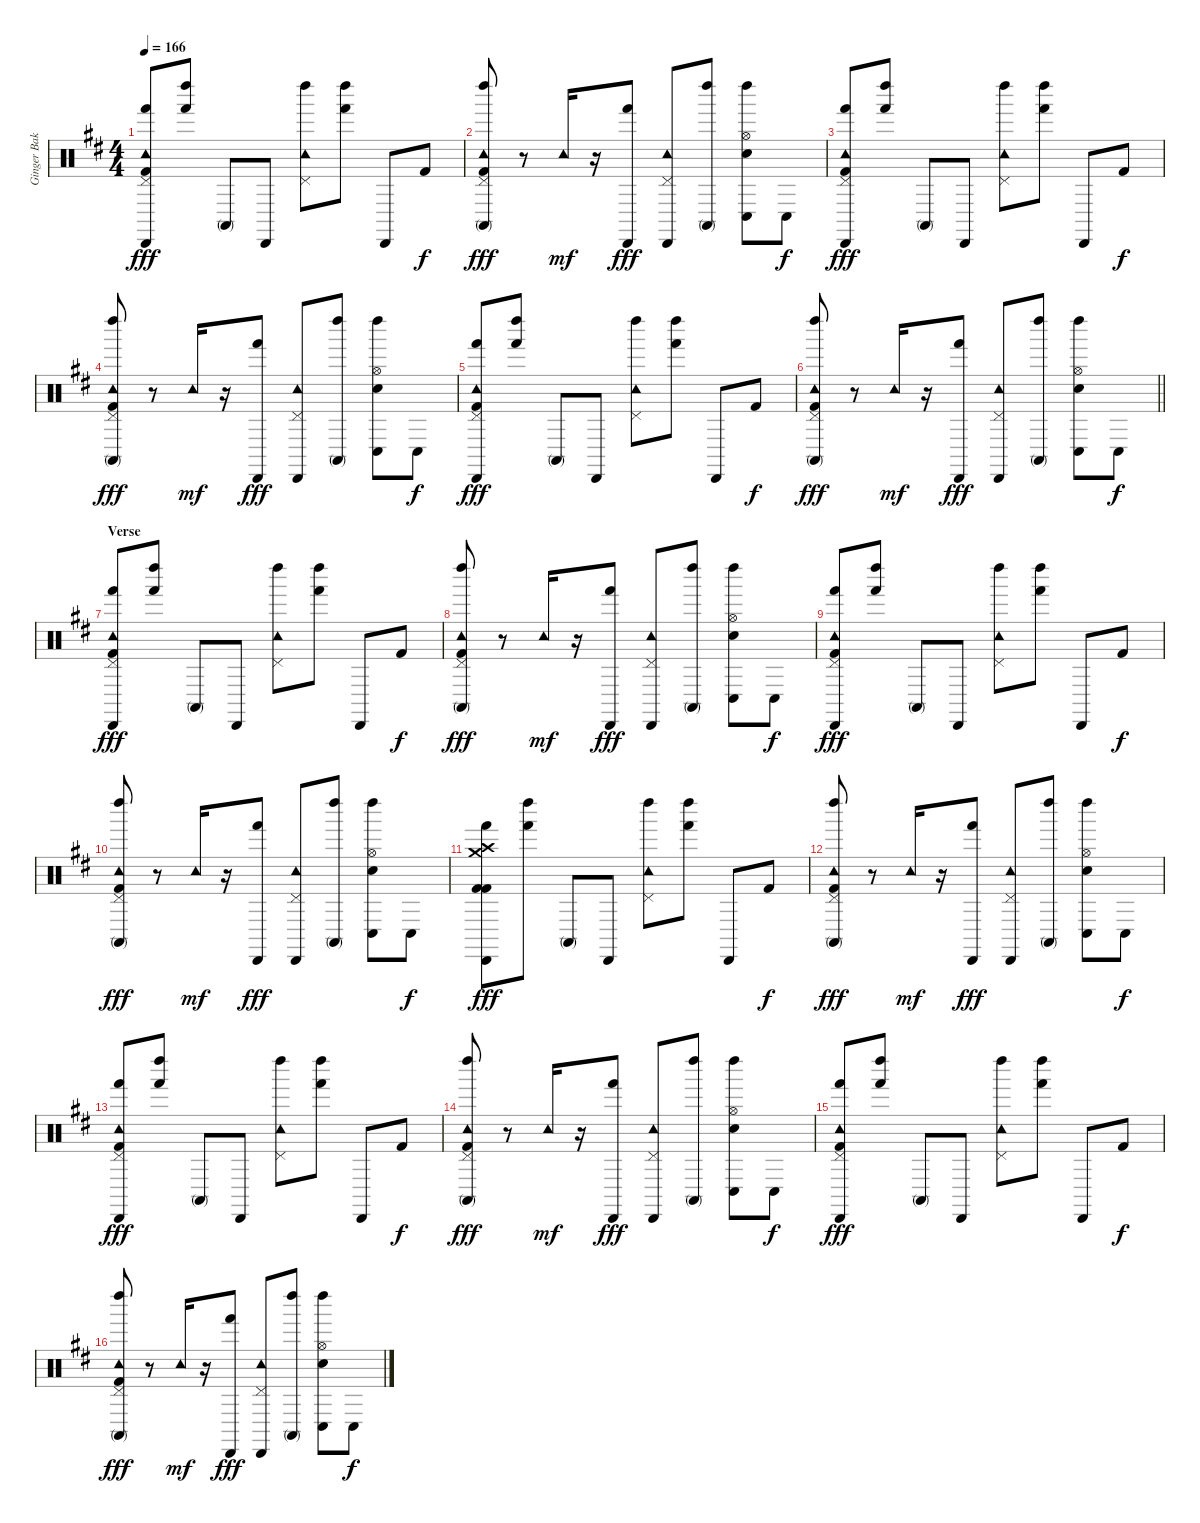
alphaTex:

\track ("Ginger Baker (Drums)" "Ginger Bak") {instrument percussion}
\staff {score}
\articulation defaults
\ts (4 4)
\tempo 166
\clef neutral
\ks d
("Tambourine (hit)" "Pedal Hi-Hat (hit)" "Kick (hit) 2" "Hand (hit)" "Cabasa (hit)").8{dy fff} ("Hand (hit)" "Left Maraca (hit)").8 "Conga high (mute)".8 "Cabasa (hit)".8 ("Tambourine (hit)" "Pedal Hi-Hat (hit)" "Left Maraca (hit)").8 ("Left Maraca (hit)" "Hand (hit)").8 "Cabasa (hit)".8 "Kick (hit) 2".8{dy f} |
("Tambourine (hit)" "Pedal Hi-Hat (hit)" "Left Maraca (hit)" "Conga high (mute)" "Kick (hit) 2").8{dy fff} r.8 "Tambourine (hit)".16{dy mf} r.16 ("Cabasa (hit)" "Hand (hit)").8{dy fff} ("Tambourine (hit)" "Pedal Hi-Hat (hit)" "Cabasa (hit)").8 ("Left Maraca (hit)" "Conga high (mute)").8 ("Hi-Hat (open)" "Snare (hit) 2" "Left Maraca (hit)" "Conga low (hit)").8 "Conga low (hit)".8{dy f} |
("Tambourine (hit)" "Pedal Hi-Hat (hit)" "Kick (hit) 2" "Hand (hit)" "Cabasa (hit)").8{dy fff} ("Hand (hit)" "Left Maraca (hit)").8 "Conga high (mute)".8 "Cabasa (hit)".8 ("Tambourine (hit)" "Pedal Hi-Hat (hit)" "Left Maraca (hit)").8 ("Left Maraca (hit)" "Hand (hit)").8 "Cabasa (hit)".8 "Kick (hit) 2".8{dy f} |
("Tambourine (hit)" "Pedal Hi-Hat (hit)" "Left Maraca (hit)" "Conga high (mute)" "Kick (hit) 2").8{dy fff} r.8 "Tambourine (hit)".16{dy mf} r.16 ("Cabasa (hit)" "Hand (hit)").8{dy fff} ("Tambourine (hit)" "Pedal Hi-Hat (hit)" "Cabasa (hit)").8 ("Left Maraca (hit)" "Conga high (mute)").8 ("Hi-Hat (open)" "Snare (hit) 2" "Left Maraca (hit)" "Conga low (hit)").8 "Conga low (hit)".8{dy f} |
("Tambourine (hit)" "Pedal Hi-Hat (hit)" "Kick (hit) 2" "Hand (hit)" "Cabasa (hit)").8{dy fff} ("Hand (hit)" "Left Maraca (hit)").8 "Conga high (mute)".8 "Cabasa (hit)".8 ("Tambourine (hit)" "Pedal Hi-Hat (hit)" "Left Maraca (hit)").8 ("Left Maraca (hit)" "Hand (hit)").8 "Cabasa (hit)".8 "Kick (hit) 2".8{dy f} |
\barLineRight lightlight
("Tambourine (hit)" "Pedal Hi-Hat (hit)" "Left Maraca (hit)" "Conga high (mute)" "Kick (hit) 2").8{dy fff} r.8 "Tambourine (hit)".16{dy mf} r.16 ("Cabasa (hit)" "Hand (hit)").8{dy fff} ("Tambourine (hit)" "Pedal Hi-Hat (hit)" "Cabasa (hit)").8 ("Left Maraca (hit)" "Conga high (mute)").8 ("Hi-Hat (open)" "Snare (hit) 2" "Left Maraca (hit)" "Conga low (hit)").8 "Conga low (hit)".8{dy f} |
\section ("" "Verse")
("Tambourine (hit)" "Pedal Hi-Hat (hit)" "Kick (hit) 2" "Hand (hit)" "Cabasa (hit)").8{dy fff} ("Hand (hit)" "Left Maraca (hit)").8 "Conga high (mute)".8 "Cabasa (hit)".8 ("Tambourine (hit)" "Pedal Hi-Hat (hit)" "Left Maraca (hit)").8 ("Left Maraca (hit)" "Hand (hit)").8 "Cabasa (hit)".8 "Kick (hit) 2".8{dy f} |
("Tambourine (hit)" "Pedal Hi-Hat (hit)" "Left Maraca (hit)" "Conga high (mute)" "Kick (hit) 2").8{dy fff} r.8 "Tambourine (hit)".16{dy mf} r.16 ("Cabasa (hit)" "Hand (hit)").8{dy fff} ("Tambourine (hit)" "Pedal Hi-Hat (hit)" "Cabasa (hit)").8 ("Left Maraca (hit)" "Conga high (mute)").8 ("Hi-Hat (open)" "Snare (hit) 2" "Left Maraca (hit)" "Conga low (hit)").8 "Conga low (hit)".8{dy f} |
("Tambourine (hit)" "Pedal Hi-Hat (hit)" "Kick (hit) 2" "Hand (hit)" "Cabasa (hit)").8{dy fff} ("Hand (hit)" "Left Maraca (hit)").8 "Conga high (mute)".8 "Cabasa (hit)".8 ("Tambourine (hit)" "Pedal Hi-Hat (hit)" "Left Maraca (hit)").8 ("Left Maraca (hit)" "Hand (hit)").8 "Cabasa (hit)".8 "Kick (hit) 2".8{dy f} |
("Tambourine (hit)" "Pedal Hi-Hat (hit)" "Left Maraca (hit)" "Conga high (mute)" "Kick (hit) 2").8{dy fff} r.8 "Tambourine (hit)".16{dy mf} r.16 ("Cabasa (hit)" "Hand (hit)").8{dy fff} ("Tambourine (hit)" "Pedal Hi-Hat (hit)" "Cabasa (hit)").8 ("Left Maraca (hit)" "Conga high (mute)").8 ("Hi-Hat (open)" "Snare (hit) 2" "Left Maraca (hit)" "Conga low (hit)").8 "Conga low (hit)".8{dy f} |
("Crash high (hit)" "Crash medium (hit)" "Kick (hit) 2" "Hand (hit)" "Cabasa (hit)" "Kick (hit) 2").8{dy fff} ("Hand (hit)" "Left Maraca (hit)").8 "Conga high (mute)".8 "Cabasa (hit)".8 ("Tambourine (hit)" "Pedal Hi-Hat (hit)" "Left Maraca (hit)").8 ("Left Maraca (hit)" "Hand (hit)").8 "Cabasa (hit)".8 "Kick (hit) 2".8{dy f} |
("Tambourine (hit)" "Pedal Hi-Hat (hit)" "Left Maraca (hit)" "Conga high (mute)" "Kick (hit) 2").8{dy fff} r.8 "Tambourine (hit)".16{dy mf} r.16 ("Cabasa (hit)" "Hand (hit)").8{dy fff} ("Tambourine (hit)" "Pedal Hi-Hat (hit)" "Cabasa (hit)").8 ("Left Maraca (hit)" "Conga high (mute)").8 ("Hi-Hat (open)" "Snare (hit) 2" "Left Maraca (hit)" "Conga low (hit)").8 "Conga low (hit)".8{dy f} |
("Tambourine (hit)" "Pedal Hi-Hat (hit)" "Kick (hit) 2" "Hand (hit)" "Cabasa (hit)").8{dy fff} ("Hand (hit)" "Left Maraca (hit)").8 "Conga high (mute)".8 "Cabasa (hit)".8 ("Tambourine (hit)" "Pedal Hi-Hat (hit)" "Left Maraca (hit)").8 ("Left Maraca (hit)" "Hand (hit)").8 "Cabasa (hit)".8 "Kick (hit) 2".8{dy f} |
("Tambourine (hit)" "Pedal Hi-Hat (hit)" "Left Maraca (hit)" "Conga high (mute)" "Kick (hit) 2").8{dy fff} r.8 "Tambourine (hit)".16{dy mf} r.16 ("Cabasa (hit)" "Hand (hit)").8{dy fff} ("Tambourine (hit)" "Pedal Hi-Hat (hit)" "Cabasa (hit)").8 ("Left Maraca (hit)" "Conga high (mute)").8 ("Hi-Hat (open)" "Snare (hit) 2" "Left Maraca (hit)" "Conga low (hit)").8 "Conga low (hit)".8{dy f} |
("Tambourine (hit)" "Pedal Hi-Hat (hit)" "Kick (hit) 2" "Hand (hit)" "Cabasa (hit)").8{dy fff} ("Hand (hit)" "Left Maraca (hit)").8 "Conga high (mute)".8 "Cabasa (hit)".8 ("Tambourine (hit)" "Pedal Hi-Hat (hit)" "Left Maraca (hit)").8 ("Left Maraca (hit)" "Hand (hit)").8 "Cabasa (hit)".8 "Kick (hit) 2".8{dy f} |
("Tambourine (hit)" "Pedal Hi-Hat (hit)" "Left Maraca (hit)" "Conga high (mute)" "Kick (hit) 2").8{dy fff} r.8 "Tambourine (hit)".16{dy mf} r.16 ("Cabasa (hit)" "Hand (hit)").8{dy fff} ("Tambourine (hit)" "Pedal Hi-Hat (hit)" "Cabasa (hit)").8 ("Left Maraca (hit)" "Conga high (mute)").8 ("Hi-Hat (open)" "Snare (hit) 2" "Left Maraca (hit)" "Conga low (hit)").8 "Conga low (hit)".8{dy f}
